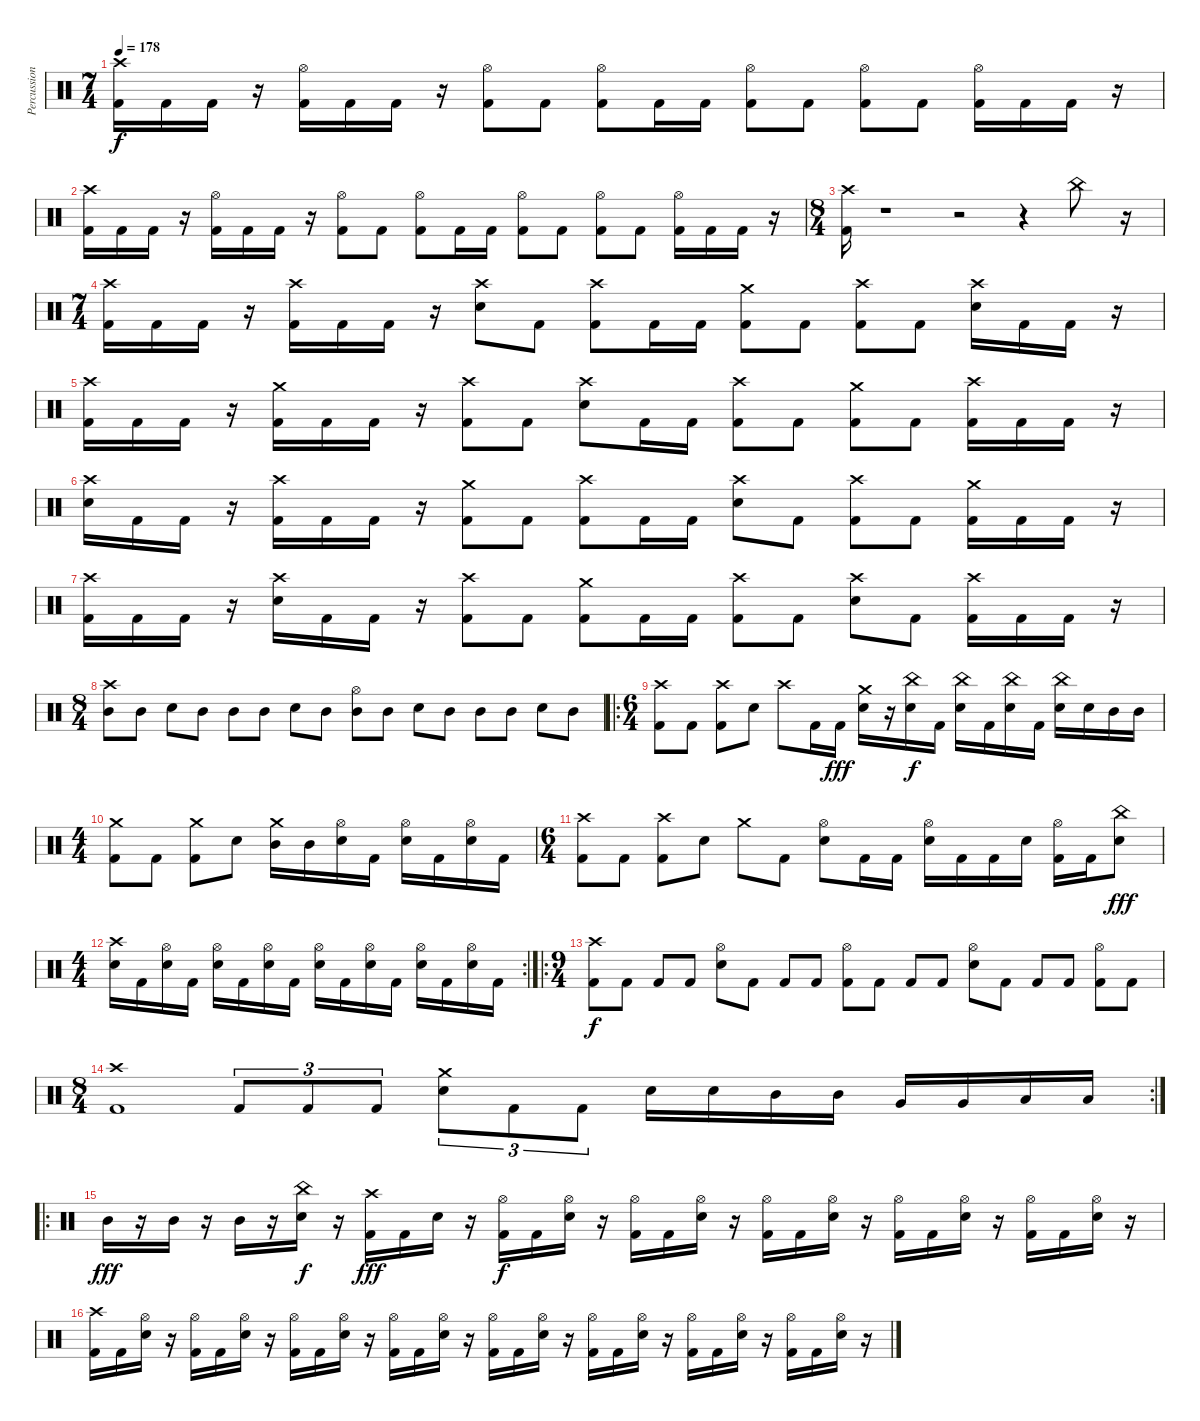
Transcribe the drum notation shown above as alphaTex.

\track ("Percussion" "Percussion") {instrument percussion}
\staff {score}
\articulation defaults
\ts (7 4)
\tempo 178
\clef neutral
\ks c
("Crash high (hit)" "Kick (hit) 2").16{dy f} "Kick (hit) 2".16 "Kick (hit) 2".16 r.16 ("Hi-Hat (open)" "Kick (hit) 2").16 "Kick (hit) 2".16 "Kick (hit) 2".16 r.16 ("Hi-Hat (open)" "Kick (hit) 2").8 "Kick (hit) 2".8 ("Hi-Hat (open)" "Kick (hit) 2").8 "Kick (hit) 2".16 "Kick (hit) 2".16 ("Hi-Hat (open)" "Kick (hit) 2").8 "Kick (hit) 2".8 ("Hi-Hat (open)" "Kick (hit) 2").8 "Kick (hit) 2".8 ("Hi-Hat (open)" "Kick (hit) 2").16 "Kick (hit) 2".16 "Kick (hit) 2".16 r.16 |
("Crash high (hit)" "Kick (hit) 2").16 "Kick (hit) 2".16 "Kick (hit) 2".16 r.16 ("Hi-Hat (open)" "Kick (hit) 2").16 "Kick (hit) 2".16 "Kick (hit) 2".16 r.16 ("Hi-Hat (open)" "Kick (hit) 2").8 "Kick (hit) 2".8 ("Hi-Hat (open)" "Kick (hit) 2").8 "Kick (hit) 2".16 "Kick (hit) 2".16 ("Hi-Hat (open)" "Kick (hit) 2").8 "Kick (hit) 2".8 ("Hi-Hat (open)" "Kick (hit) 2").8 "Kick (hit) 2".8 ("Hi-Hat (open)" "Kick (hit) 2").16 "Kick (hit) 2".16 "Kick (hit) 2".16 r.16 |
\ts (8 4)
("Crash high (hit)" "Kick (hit) 2").16 r.1 r.2 r.4 "China (hit)".8 r.16 |
\ts (7 4)
("Crash high (hit)" "Kick (hit) 2").16 "Kick (hit) 2".16 "Kick (hit) 2".16 r.16 ("Crash high (hit)" "Kick (hit) 2").16 "Kick (hit) 2".16 "Kick (hit) 2".16 r.16 ("Crash high (hit)" "Electric Snare (hit)").8 "Kick (hit) 2".8 ("Crash high (hit)" "Kick (hit) 2").8 "Kick (hit) 2".16 "Kick (hit) 2".16 ("Crash medium (hit)" "Kick (hit) 2").8 "Kick (hit) 2".8 ("Crash high (hit)" "Kick (hit) 2").8 "Kick (hit) 2".8 ("Crash high (hit)" "Electric Snare (hit)").16 "Kick (hit) 2".16 "Kick (hit) 2".16 r.16 |
("Crash high (hit)" "Kick (hit) 2").16 "Kick (hit) 2".16 "Kick (hit) 2".16 r.16 ("Crash medium (hit)" "Kick (hit) 2").16 "Kick (hit) 2".16 "Kick (hit) 2".16 r.16 ("Crash high (hit)" "Kick (hit) 2").8 "Kick (hit) 2".8 ("Crash high (hit)" "Electric Snare (hit)").8 "Kick (hit) 2".16 "Kick (hit) 2".16 ("Crash high (hit)" "Kick (hit) 2").8 "Kick (hit) 2".8 ("Crash medium (hit)" "Kick (hit) 2").8 "Kick (hit) 2".8 ("Crash high (hit)" "Kick (hit) 2").16 "Kick (hit) 2".16 "Kick (hit) 2".16 r.16 |
("Crash high (hit)" "Electric Snare (hit)").16 "Kick (hit) 2".16 "Kick (hit) 2".16 r.16 ("Crash high (hit)" "Kick (hit) 2").16 "Kick (hit) 2".16 "Kick (hit) 2".16 r.16 ("Crash medium (hit)" "Kick (hit) 2").8 "Kick (hit) 2".8 ("Crash high (hit)" "Kick (hit) 2").8 "Kick (hit) 2".16 "Kick (hit) 2".16 ("Crash high (hit)" "Electric Snare (hit)").8 "Kick (hit) 2".8 ("Crash high (hit)" "Kick (hit) 2").8 "Kick (hit) 2".8 ("Crash medium (hit)" "Kick (hit) 2").16 "Kick (hit) 2".16 "Kick (hit) 2".16 r.16 |
("Crash high (hit)" "Kick (hit) 2").16 "Kick (hit) 2".16 "Kick (hit) 2".16 r.16 ("Crash high (hit)" "Electric Snare (hit)").16 "Kick (hit) 2".16 "Kick (hit) 2".16 r.16 ("Crash high (hit)" "Kick (hit) 2").8 "Kick (hit) 2".8 ("Crash medium (hit)" "Kick (hit) 2").8 "Kick (hit) 2".16 "Kick (hit) 2".16 ("Crash high (hit)" "Kick (hit) 2").8 "Kick (hit) 2".8 ("Crash high (hit)" "Electric Snare (hit)").8 "Kick (hit) 2".8 ("Crash high (hit)" "Kick (hit) 2").16 "Kick (hit) 2".16 "Kick (hit) 2".16 r.16 |
\ts (8 4)
("Crash high (hit)" "Mid Tom (hit)").8 "Mid Tom (hit)".8 "Electric Snare (hit)".8 "Mid Tom (hit)".8 "Mid Tom (hit)".8 "Mid Tom (hit)".8 "Electric Snare (hit)".8 "Mid Tom (hit)".8 ("Hi-Hat (open)" "Mid Tom (hit)").8 "Mid Tom (hit)".8 "Electric Snare (hit)".8 "Mid Tom (hit)".8 "Mid Tom (hit)".8 "Mid Tom (hit)".8 "Electric Snare (hit)".8 "Mid Tom (hit)".8 |
\ro
\ts (6 4)
("Crash high (hit)" "Kick (hit) 2").8 "Kick (hit) 2".8 ("Crash high (hit)" "Kick (hit) 2").8 "Electric Snare (hit)".8 "Crash high (hit)".8 "Kick (hit) 2".16 "Kick (hit) 2".16{dy fff} ("Crash medium (hit)" "Electric Snare (hit)").16 r.16 ("China (hit)" "Electric Snare (hit)").16{dy f} "Kick (hit) 2".16 ("China (hit)" "Electric Snare (hit)").16 "Kick (hit) 2".16 ("China (hit)" "Electric Snare (hit)").16 "Kick (hit) 2".16 ("China (hit)" "Electric Snare (hit)").16 "Electric Snare (hit)".16 "Mid Tom (hit)".16 "Mid Tom (hit)".16 |
\ts (4 4)
("Crash medium (hit)" "Kick (hit) 2").8 "Kick (hit) 2".8 ("Crash medium (hit)" "Kick (hit) 2").8 "Electric Snare (hit)".8 ("Crash medium (hit)" "Mid Tom (hit)").16 "Mid Tom (hit)".16 ("Hi-Hat (open)" "Electric Snare (hit)").16 "Kick (hit) 2".16 ("Hi-Hat (open)" "Electric Snare (hit)").16 "Kick (hit) 2".16 ("Hi-Hat (open)" "Electric Snare (hit)").16 "Kick (hit) 2".16 |
\ts (6 4)
("Crash high (hit)" "Kick (hit) 2").8 "Kick (hit) 2".8 ("Crash high (hit)" "Kick (hit) 2").8 "Electric Snare (hit)".8 "Crash medium (hit)".8 "Kick (hit) 2".8 ("Hi-Hat (open)" "Electric Snare (hit)").8 "Kick (hit) 2".16 "Kick (hit) 2".16 ("Hi-Hat (open)" "Electric Snare (hit)").16 "Kick (hit) 2".16 "Kick (hit) 2".16 "Electric Snare (hit)".16 ("Hi-Hat (open)" "Kick (hit) 2").16 "Kick (hit) 2".16 ("China (hit)" "Electric Snare (hit)").8{dy fff} |
\rc 2
\ts (4 4)
("Crash high (hit)" "Electric Snare (hit)").16 "Kick (hit) 2".16 ("Hi-Hat (open)" "Electric Snare (hit)").16 "Kick (hit) 2".16 ("Hi-Hat (open)" "Electric Snare (hit)").16 "Kick (hit) 2".16 ("Hi-Hat (open)" "Electric Snare (hit)").16 "Kick (hit) 2".16 ("Hi-Hat (open)" "Electric Snare (hit)").16 "Kick (hit) 2".16 ("Hi-Hat (open)" "Electric Snare (hit)").16 "Kick (hit) 2".16 ("Hi-Hat (open)" "Electric Snare (hit)").16 "Kick (hit) 2".16 ("Hi-Hat (open)" "Electric Snare (hit)").16 "Kick (hit) 2".16 |
\ro
\ts (9 4)
("Crash high (hit)" "Kick (hit) 2").8{dy f} "Kick (hit) 2".8 "Kick (hit) 2".8 "Kick (hit) 2".8 ("Hi-Hat (open)" "Electric Snare (hit)").8 "Kick (hit) 2".8 "Kick (hit) 2".8 "Kick (hit) 2".8 ("Hi-Hat (open)" "Kick (hit) 2").8 "Kick (hit) 2".8 "Kick (hit) 2".8 "Kick (hit) 2".8 ("Hi-Hat (open)" "Electric Snare (hit)").8 "Kick (hit) 2".8 "Kick (hit) 2".8 "Kick (hit) 2".8 ("Hi-Hat (open)" "Kick (hit) 2").8 "Kick (hit) 2".8 |
\rc 2
\ts (8 4)
("Crash high (hit)" "Kick (hit) 2").1 "Kick (hit) 2".8{tu (3 2)} "Kick (hit) 2".8{tu (3 2)} "Kick (hit) 2".8{tu (3 2)} ("Crash medium (hit)" "Electric Snare (hit)").8{tu (3 2)} "Kick (hit) 2".8{tu (3 2)} "Kick (hit) 2".8{tu (3 2)} "Electric Snare (hit)".16 "Electric Snare (hit)".16 "Mid Tom (hit)".16 "Mid Tom (hit)".16 "Very Low Tom (hit)".16 "Very Low Tom (hit)".16 "Low Floor Tom (hit)".16 "Low Floor Tom (hit)".16 |
\ro "Mid Tom (hit)".16{dy fff}
r.16 "Mid Tom (hit)".16 r.16 "Mid Tom (hit)".16 r.16 ("China (hit)" "Electric Snare (hit)").16{dy f} r.16 ("Crash high (hit)" "Kick (hit) 2").16{dy fff} "Kick (hit) 2".16 "Electric Snare (hit)".16 r.16 ("Hi-Hat (open)" "Kick (hit) 2").16{dy f} "Kick (hit) 2".16 ("Hi-Hat (open)" "Electric Snare (hit)").16 r.16 ("Hi-Hat (open)" "Kick (hit) 2").16 "Kick (hit) 2".16 ("Hi-Hat (open)" "Electric Snare (hit)").16 r.16 ("Hi-Hat (open)" "Kick (hit) 2").16 "Kick (hit) 2".16 ("Hi-Hat (open)" "Electric Snare (hit)").16 r.16 ("Hi-Hat (open)" "Kick (hit) 2").16 "Kick (hit) 2".16 ("Hi-Hat (open)" "Electric Snare (hit)").16 r.16 ("Hi-Hat (open)" "Kick (hit) 2").16 "Kick (hit) 2".16 ("Hi-Hat (open)" "Electric Snare (hit)").16 r.16 |
("Crash high (hit)" "Kick (hit) 2").16 "Kick (hit) 2".16 ("Hi-Hat (open)" "Electric Snare (hit)").16 r.16 ("Hi-Hat (open)" "Kick (hit) 2").16 "Kick (hit) 2".16 ("Hi-Hat (open)" "Electric Snare (hit)").16 r.16 ("Hi-Hat (open)" "Kick (hit) 2").16 "Kick (hit) 2".16 ("Hi-Hat (open)" "Electric Snare (hit)").16 r.16 ("Hi-Hat (open)" "Kick (hit) 2").16 "Kick (hit) 2".16 ("Hi-Hat (open)" "Electric Snare (hit)").16 r.16 ("Hi-Hat (open)" "Kick (hit) 2").16 "Kick (hit) 2".16 ("Hi-Hat (open)" "Electric Snare (hit)").16 r.16 ("Hi-Hat (open)" "Kick (hit) 2").16 "Kick (hit) 2".16 ("Hi-Hat (open)" "Electric Snare (hit)").16 r.16 ("Hi-Hat (open)" "Kick (hit) 2").16 "Kick (hit) 2".16 ("Hi-Hat (open)" "Electric Snare (hit)").16 r.16 ("Hi-Hat (open)" "Kick (hit) 2").16 "Kick (hit) 2".16 ("Hi-Hat (open)" "Electric Snare (hit)").16 r.16
